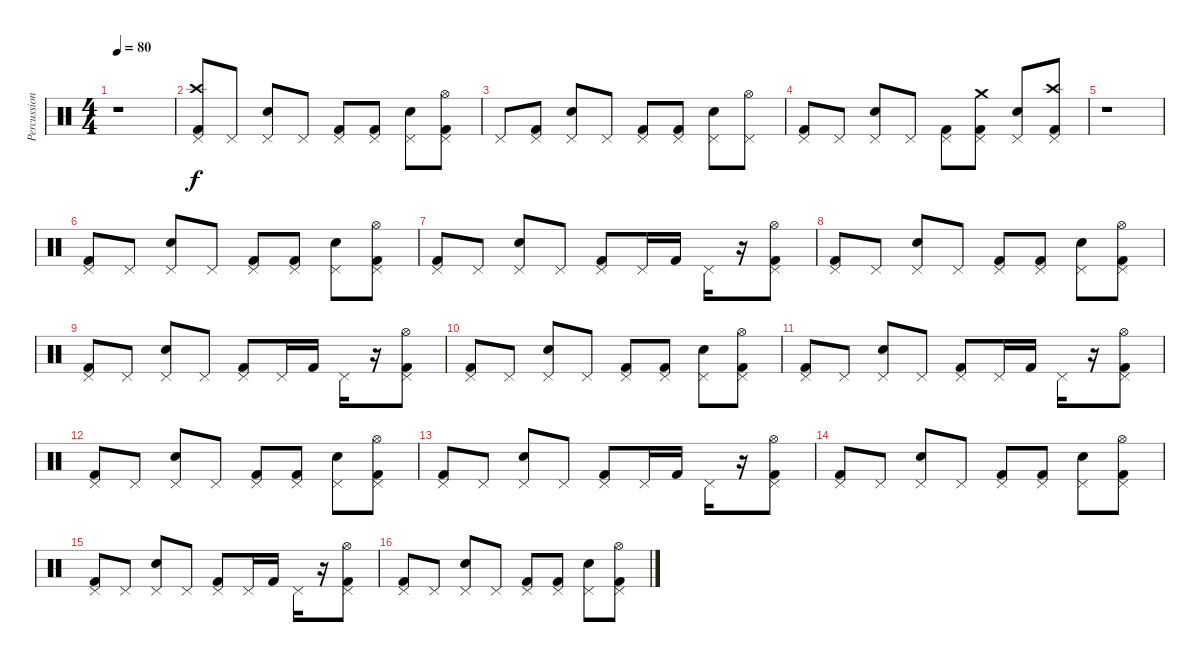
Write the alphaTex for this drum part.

\track ("Percussion" "Percussion") {instrument percussion}
\staff {score}
\articulation defaults
\ts (4 4)
\tempo 80
\clef neutral
\ks c
r.1{dy f} |
("Pedal Hi-Hat (hit)" "Crash high (hit)" "Kick (hit) 2").8 "Pedal Hi-Hat (hit)".8 ("Pedal Hi-Hat (hit)" "Electric Snare (hit)").8 "Pedal Hi-Hat (hit)".8 ("Pedal Hi-Hat (hit)" "Kick (hit) 2").8 ("Pedal Hi-Hat (hit)" "Kick (hit) 2").8 ("Pedal Hi-Hat (hit)" "Electric Snare (hit)").8 ("Pedal Hi-Hat (hit)" "Hi-Hat (open)" "Kick (hit) 2").8 |
"Pedal Hi-Hat (hit)".8 ("Pedal Hi-Hat (hit)" "Kick (hit) 2").8 ("Pedal Hi-Hat (hit)" "Electric Snare (hit)").8 "Pedal Hi-Hat (hit)".8 ("Pedal Hi-Hat (hit)" "Kick (hit) 2").8 ("Pedal Hi-Hat (hit)" "Kick (hit) 2").8 ("Pedal Hi-Hat (hit)" "Electric Snare (hit)").8 ("Pedal Hi-Hat (hit)" "Hi-Hat (open)").8 |
("Pedal Hi-Hat (hit)" "Kick (hit) 2").8 "Pedal Hi-Hat (hit)".8 ("Pedal Hi-Hat (hit)" "Electric Snare (hit)").8 "Pedal Hi-Hat (hit)".8 ("Pedal Hi-Hat (hit)" "Kick (hit) 2").8 ("Pedal Hi-Hat (hit)" "Crash medium (hit)" "Kick (hit) 2").8 ("Pedal Hi-Hat (hit)" "Electric Snare (hit)").8 ("Pedal Hi-Hat (hit)" "Crash high (hit)" "Kick (hit) 2").8 |
r.1 |
("Pedal Hi-Hat (hit)" "Kick (hit) 2").8 "Pedal Hi-Hat (hit)".8 ("Pedal Hi-Hat (hit)" "Electric Snare (hit)").8 "Pedal Hi-Hat (hit)".8 ("Pedal Hi-Hat (hit)" "Kick (hit) 2").8 ("Pedal Hi-Hat (hit)" "Kick (hit) 2").8 ("Pedal Hi-Hat (hit)" "Electric Snare (hit)").8 ("Pedal Hi-Hat (hit)" "Hi-Hat (open)" "Kick (hit) 2").8 |
("Pedal Hi-Hat (hit)" "Kick (hit) 2").8 "Pedal Hi-Hat (hit)".8 ("Pedal Hi-Hat (hit)" "Electric Snare (hit)").8 "Pedal Hi-Hat (hit)".8 ("Pedal Hi-Hat (hit)" "Kick (hit) 2").8 "Pedal Hi-Hat (hit)".16 "Kick (hit) 2".16 "Pedal Hi-Hat (hit)".16 r.16 ("Pedal Hi-Hat (hit)" "Hi-Hat (open)" "Kick (hit) 2").8 |
("Pedal Hi-Hat (hit)" "Kick (hit) 2").8 "Pedal Hi-Hat (hit)".8 ("Pedal Hi-Hat (hit)" "Electric Snare (hit)").8 "Pedal Hi-Hat (hit)".8 ("Pedal Hi-Hat (hit)" "Kick (hit) 2").8 ("Pedal Hi-Hat (hit)" "Kick (hit) 2").8 ("Pedal Hi-Hat (hit)" "Electric Snare (hit)").8 ("Pedal Hi-Hat (hit)" "Hi-Hat (open)" "Kick (hit) 2").8 |
("Pedal Hi-Hat (hit)" "Kick (hit) 2").8 "Pedal Hi-Hat (hit)".8 ("Pedal Hi-Hat (hit)" "Electric Snare (hit)").8 "Pedal Hi-Hat (hit)".8 ("Pedal Hi-Hat (hit)" "Kick (hit) 2").8 "Pedal Hi-Hat (hit)".16 "Kick (hit) 2".16 "Pedal Hi-Hat (hit)".16 r.16 ("Pedal Hi-Hat (hit)" "Hi-Hat (open)" "Kick (hit) 2").8 |
("Pedal Hi-Hat (hit)" "Kick (hit) 2").8 "Pedal Hi-Hat (hit)".8 ("Pedal Hi-Hat (hit)" "Electric Snare (hit)").8 "Pedal Hi-Hat (hit)".8 ("Pedal Hi-Hat (hit)" "Kick (hit) 2").8 ("Pedal Hi-Hat (hit)" "Kick (hit) 2").8 ("Pedal Hi-Hat (hit)" "Electric Snare (hit)").8 ("Pedal Hi-Hat (hit)" "Hi-Hat (open)" "Kick (hit) 2").8 |
("Pedal Hi-Hat (hit)" "Kick (hit) 2").8 "Pedal Hi-Hat (hit)".8 ("Pedal Hi-Hat (hit)" "Electric Snare (hit)").8 "Pedal Hi-Hat (hit)".8 ("Pedal Hi-Hat (hit)" "Kick (hit) 2").8 "Pedal Hi-Hat (hit)".16 "Kick (hit) 2".16 "Pedal Hi-Hat (hit)".16 r.16 ("Pedal Hi-Hat (hit)" "Hi-Hat (open)" "Kick (hit) 2").8 |
("Pedal Hi-Hat (hit)" "Kick (hit) 2").8 "Pedal Hi-Hat (hit)".8 ("Pedal Hi-Hat (hit)" "Electric Snare (hit)").8 "Pedal Hi-Hat (hit)".8 ("Pedal Hi-Hat (hit)" "Kick (hit) 2").8 ("Pedal Hi-Hat (hit)" "Kick (hit) 2").8 ("Pedal Hi-Hat (hit)" "Electric Snare (hit)").8 ("Pedal Hi-Hat (hit)" "Hi-Hat (open)" "Kick (hit) 2").8 |
("Pedal Hi-Hat (hit)" "Kick (hit) 2").8 "Pedal Hi-Hat (hit)".8 ("Pedal Hi-Hat (hit)" "Electric Snare (hit)").8 "Pedal Hi-Hat (hit)".8 ("Pedal Hi-Hat (hit)" "Kick (hit) 2").8 "Pedal Hi-Hat (hit)".16 "Kick (hit) 2".16 "Pedal Hi-Hat (hit)".16 r.16 ("Pedal Hi-Hat (hit)" "Hi-Hat (open)" "Kick (hit) 2").8 |
("Pedal Hi-Hat (hit)" "Kick (hit) 2").8 "Pedal Hi-Hat (hit)".8 ("Pedal Hi-Hat (hit)" "Electric Snare (hit)").8 "Pedal Hi-Hat (hit)".8 ("Pedal Hi-Hat (hit)" "Kick (hit) 2").8 ("Pedal Hi-Hat (hit)" "Kick (hit) 2").8 ("Pedal Hi-Hat (hit)" "Electric Snare (hit)").8 ("Pedal Hi-Hat (hit)" "Hi-Hat (open)" "Kick (hit) 2").8 |
("Pedal Hi-Hat (hit)" "Kick (hit) 2").8 "Pedal Hi-Hat (hit)".8 ("Pedal Hi-Hat (hit)" "Electric Snare (hit)").8 "Pedal Hi-Hat (hit)".8 ("Pedal Hi-Hat (hit)" "Kick (hit) 2").8 "Pedal Hi-Hat (hit)".16 "Kick (hit) 2".16 "Pedal Hi-Hat (hit)".16 r.16 ("Pedal Hi-Hat (hit)" "Hi-Hat (open)" "Kick (hit) 2").8 |
("Pedal Hi-Hat (hit)" "Kick (hit) 2").8 "Pedal Hi-Hat (hit)".8 ("Pedal Hi-Hat (hit)" "Electric Snare (hit)").8 "Pedal Hi-Hat (hit)".8 ("Pedal Hi-Hat (hit)" "Kick (hit) 2").8 ("Pedal Hi-Hat (hit)" "Kick (hit) 2").8 ("Pedal Hi-Hat (hit)" "Electric Snare (hit)").8 ("Pedal Hi-Hat (hit)" "Hi-Hat (open)" "Kick (hit) 2").8
